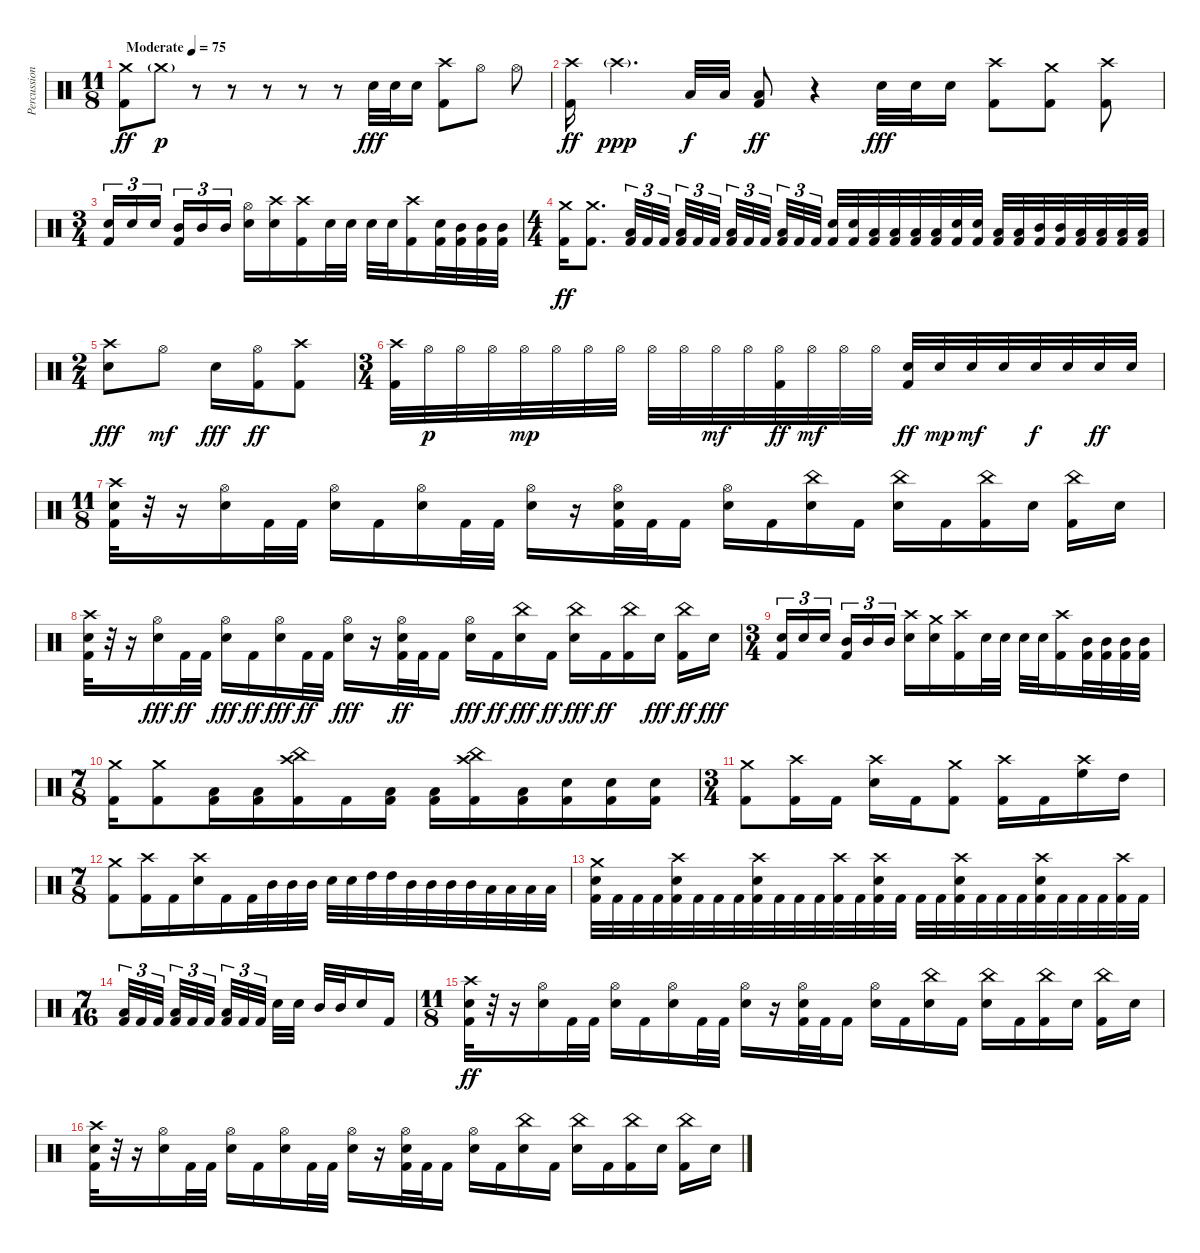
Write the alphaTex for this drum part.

\track ("Percussion" "Percussion") {instrument percussion}
\staff {score}
\articulation defaults
\ts (11 8)
\tempo (75 "Moderate")
\clef neutral
\ks c
("Crash medium (hit)" "Kick (hit) 2").8{dy ff} "Crash medium (hit)"{g}.8{dy p} r.8 r.8 r.8 r.8 r.8 "Electric Snare (hit)".32{dy fff} "Electric Snare (hit)".32 "Electric Snare (hit)".16 ("Crash high (hit)" "Kick (hit) 2").8 "Hi-Hat (open)".8 "Hi-Hat (open)".8 |
("Crash high (hit)" "Kick (hit) 2").16{dy ff} "Crash high (hit)"{g}.4{d dy ppp volume 0} "Low Tom (hit)".32{dy f volume 11} "Low Tom (hit)".32 ("Low Tom (hit)" "Kick (hit) 2").8{dy ff} r.4 "Electric Snare (hit)".32{dy fff} "Electric Snare (hit)".32 "Electric Snare (hit)".16 ("Crash high (hit)" "Kick (hit) 2").8 ("Crash medium (hit)" "Kick (hit) 2").8 ("Crash high (hit)" "Kick (hit) 2").8 |
\ts (3 4)
("Electric Snare (hit)" "Kick (hit) 2").16{tu (3 2)} "Electric Snare (hit)".16{tu (3 2)} "Electric Snare (hit)".16{tu (3 2) beam splitsecondary} ("Mid Tom (hit)" "Kick (hit) 2").16{tu (3 2)} "Mid Tom (hit)".16{tu (3 2)} "Mid Tom (hit)".16{tu (3 2)} ("Hi-Hat (open)" "Electric Snare (hit)").16 ("Crash high (hit)" "Electric Snare (hit)").16 ("Crash high (hit)" "Kick (hit) 2").16 "Electric Snare (hit)".32 "Electric Snare (hit)".32 "Electric Snare (hit)".32 "Electric Snare (hit)".32 ("Crash high (hit)" "Kick (hit) 2").16 ("Electric Snare (hit)" "Kick (hit) 2").32 ("Mid Tom (hit)" "Kick (hit) 2").32 ("Mid Tom (hit)" "Kick (hit) 2").32 ("Mid Tom (hit)" "Kick (hit) 2").32 |
\ts (4 4)
("Crash medium (hit)" "Kick (hit) 2").16{dy ff} ("Crash medium (hit)" "Kick (hit) 2").8{d} ("Low Tom (hit)" "Kick (hit) 2").32{tu (3 2)} "Kick (hit) 2".32{tu (3 2)} "Kick (hit) 2".32{tu (3 2) beam splitsecondary} ("Low Tom (hit)" "Kick (hit) 2").32{tu (3 2)} "Kick (hit) 2".32{tu (3 2)} "Kick (hit) 2".32{tu (3 2) beam splitsecondary} ("Low Tom (hit)" "Kick (hit) 2").32{tu (3 2)} "Kick (hit) 2".32{tu (3 2)} "Kick (hit) 2".32{tu (3 2) beam splitsecondary} ("Low Tom (hit)" "Kick (hit) 2").32{tu (3 2)} "Kick (hit) 2".32{tu (3 2)} "Kick (hit) 2".32{tu (3 2)} ("Electric Snare (hit)" "Kick (hit) 2").32 ("Electric Snare (hit)" "Kick (hit) 2").32 ("Low Tom (hit)" "Kick (hit) 2").32 ("Low Tom (hit)" "Kick (hit) 2").32 ("Low Tom (hit)" "Kick (hit) 2").32 ("Low Tom (hit)" "Kick (hit) 2").32 ("Electric Snare (hit)" "Kick (hit) 2").32 ("Electric Snare (hit)" "Kick (hit) 2").32 ("Low Tom (hit)" "Kick (hit) 2").32 ("Low Tom (hit)" "Kick (hit) 2").32 ("Mid Tom (hit)" "Kick (hit) 2").32 ("Mid Tom (hit)" "Kick (hit) 2").32 ("Low Tom (hit)" "Kick (hit) 2").32 ("Low Tom (hit)" "Kick (hit) 2").32 ("Low Tom (hit)" "Kick (hit) 2").32 ("Low Tom (hit)" "Kick (hit) 2").32 |
\ts (2 4)
("Crash high (hit)" "Snare (hit) 2").8{dy fff} "Hi-Hat (open)".8{dy mf} "Electric Snare (hit)".16{dy fff} ("Hi-Hat (open)" "Kick (hit) 2").16{dy ff} ("Crash high (hit)" "Kick (hit) 2").8 |
\ts (3 4)
("Crash high (hit)" "Kick (hit) 2").32 "Hi-Hat (open)".32{dy p} "Hi-Hat (open)".32 "Hi-Hat (open)".32 "Hi-Hat (open)".32{dy mp} "Hi-Hat (open)".32 "Hi-Hat (open)".32 "Hi-Hat (open)".32 "Hi-Hat (open)".32 "Hi-Hat (open)".32 "Hi-Hat (open)".32{dy mf} "Hi-Hat (open)".32 ("Hi-Hat (open)" "Kick (hit) 2").32{dy ff} "Hi-Hat (open)".32{dy mf} "Hi-Hat (open)".32 "Hi-Hat (open)".32 ("Electric Snare (hit)" "Kick (hit) 2").32{dy ff} "Electric Snare (hit)".32{dy mp} "Electric Snare (hit)".32{dy mf} "Electric Snare (hit)".32 "Electric Snare (hit)".32{dy f} "Electric Snare (hit)".32 "Electric Snare (hit)".32{dy ff} "Electric Snare (hit)".32 |
\ts (11 8)
("Crash high (hit)" "Electric Snare (hit)" "Kick (hit) 2").32 r.32 r.16 ("Hi-Hat (open)" "Electric Snare (hit)").16 "Kick (hit) 2".32 "Kick (hit) 2".32 ("Hi-Hat (open)" "Electric Snare (hit)").16 "Kick (hit) 2".16 ("Hi-Hat (open)" "Electric Snare (hit)").16 "Kick (hit) 2".32 "Kick (hit) 2".32 ("Hi-Hat (open)" "Electric Snare (hit)").16 r.16 ("Hi-Hat (open)" "Electric Snare (hit)" "Kick (hit) 2").32 "Kick (hit) 2".32 "Kick (hit) 2".16 ("Hi-Hat (open)" "Electric Snare (hit)").16 "Kick (hit) 2".16 ("China (hit)" "Electric Snare (hit)").16 "Kick (hit) 2".16 ("China (hit)" "Electric Snare (hit)").16 "Kick (hit) 2".16 ("China (hit)" "Kick (hit) 2").16 "Electric Snare (hit)".16 ("China (hit)" "Kick (hit) 2").16 "Electric Snare (hit)".16 |
("Crash high (hit)" "Electric Snare (hit)" "Kick (hit) 2").32 r.32 r.16 ("Hi-Hat (open)" "Electric Snare (hit)").16{dy fff} "Kick (hit) 2".32{dy ff} "Kick (hit) 2".32 ("Hi-Hat (open)" "Electric Snare (hit)").16{dy fff} "Kick (hit) 2".16{dy ff} ("Hi-Hat (open)" "Electric Snare (hit)").16{dy fff} "Kick (hit) 2".32{dy ff} "Kick (hit) 2".32 ("Hi-Hat (open)" "Electric Snare (hit)").16{dy fff} r.16 ("Hi-Hat (open)" "Electric Snare (hit)" "Kick (hit) 2").32{dy ff} "Kick (hit) 2".32 "Kick (hit) 2".16 ("Hi-Hat (open)" "Electric Snare (hit)").16{dy fff} "Kick (hit) 2".16{dy ff} ("China (hit)" "Electric Snare (hit)").16{dy fff} "Kick (hit) 2".16{dy ff} ("China (hit)" "Electric Snare (hit)").16{dy fff} "Kick (hit) 2".16{dy ff} ("China (hit)" "Kick (hit) 2").16 "Electric Snare (hit)".16{dy fff} ("China (hit)" "Kick (hit) 2").16{dy ff} "Electric Snare (hit)".16{dy fff} |
\ts (3 4)
("Electric Snare (hit)" "Kick (hit) 2").16{tu (3 2)} "Electric Snare (hit)".16{tu (3 2)} "Electric Snare (hit)".16{tu (3 2) beam splitsecondary} ("Mid Tom (hit)" "Kick (hit) 2").16{tu (3 2)} "Mid Tom (hit)".16{tu (3 2)} "Mid Tom (hit)".16{tu (3 2)} ("Crash high (hit)" "Electric Snare (hit)").16 ("Crash medium (hit)" "Electric Snare (hit)").16 ("Crash high (hit)" "Kick (hit) 2").16 "Electric Snare (hit)".32 "Electric Snare (hit)".32 "Electric Snare (hit)".32 "Electric Snare (hit)".32 ("Crash high (hit)" "Kick (hit) 2").16 ("Mid Tom (hit)" "Kick (hit) 2").32 ("Mid Tom (hit)" "Kick (hit) 2").32 ("Mid Tom (hit)" "Kick (hit) 2").32 ("Mid Tom (hit)" "Kick (hit) 2").32 |
\ts (7 8)
("Crash medium (hit)" "Kick (hit) 2").16 ("Crash medium (hit)" "Kick (hit) 2").8 ("Low Tom (hit)" "Kick (hit) 2").16 ("Low Tom (hit)" "Kick (hit) 2").16 ("China (hit)" "Crash high (hit)" "Kick (hit) 2").16 "Kick (hit) 2".16 ("Low Tom (hit)" "Kick (hit) 2").16 ("Low Tom (hit)" "Kick (hit) 2").16 ("China (hit)" "Crash high (hit)" "Kick (hit) 2").16 ("Low Tom (hit)" "Kick (hit) 2").16 ("Electric Snare (hit)" "Kick (hit) 2").16 ("Electric Snare (hit)" "Kick (hit) 2").16 ("Electric Snare (hit)" "Kick (hit) 2").16 |
\ts (3 4)
("Crash medium (hit)" "Kick (hit) 2").8 ("Crash high (hit)" "Kick (hit) 2").16 "Kick (hit) 2".16 ("Crash high (hit)" "Electric Snare (hit)").16 "Kick (hit) 2".16 ("Crash medium (hit)" "Kick (hit) 2").8 ("Crash high (hit)" "Kick (hit) 2").16 "Kick (hit) 2".16 ("Crash high (hit)" "High Floor Tom (hit)").16 "High Tom (hit)".16 |
\ts (7 8)
("Crash medium (hit)" "Kick (hit) 2").8 ("Crash high (hit)" "Kick (hit) 2").16 "Kick (hit) 2".16 ("Crash high (hit)" "Electric Snare (hit)").16 "Kick (hit) 2".16 "Kick (hit) 2".32 "Mid Tom (hit)".32 "Mid Tom (hit)".32 "Mid Tom (hit)".32 "Electric Snare (hit)".32 "Electric Snare (hit)".32 "High Tom (hit)".32 "High Tom (hit)".32 "Mid Tom (hit)".32 "Mid Tom (hit)".32 "Mid Tom (hit)".32 "Mid Tom (hit)".32 "Low Tom (hit)".32 "Low Tom (hit)".32 "Low Tom (hit)".32 "Low Tom (hit)".32 |
("Crash medium (hit)" "Electric Snare (hit)" "Kick (hit) 2").32 "Kick (hit) 2".32 "Kick (hit) 2".32 "Kick (hit) 2".32 ("Crash high (hit)" "Electric Snare (hit)" "Kick (hit) 2").32 "Kick (hit) 2".32 "Kick (hit) 2".32 "Kick (hit) 2".32 ("Crash high (hit)" "Electric Snare (hit)" "Kick (hit) 2").32 "Kick (hit) 2".32 "Kick (hit) 2".32 "Kick (hit) 2".32 ("Crash high (hit)" "Kick (hit) 2").32 "Kick (hit) 2".32 ("Crash high (hit)" "Electric Snare (hit)" "Kick (hit) 2").32 "Kick (hit) 2".32 "Kick (hit) 2".32 "Kick (hit) 2".32 ("Crash high (hit)" "Electric Snare (hit)" "Kick (hit) 2").32 "Kick (hit) 2".32 "Kick (hit) 2".32 "Kick (hit) 2".32 ("Crash high (hit)" "Electric Snare (hit)" "Kick (hit) 2").32 "Kick (hit) 2".32 "Kick (hit) 2".32 "Kick (hit) 2".32 ("Crash high (hit)" "Kick (hit) 2").32 "Kick (hit) 2".32 |
\ts (7 16)
("Low Tom (hit)" "Kick (hit) 2").32{tu (3 2)} "Kick (hit) 2".32{tu (3 2)} "Kick (hit) 2".32{tu (3 2)} ("Low Tom (hit)" "Kick (hit) 2").32{tu (3 2)} "Kick (hit) 2".32{tu (3 2)} "Kick (hit) 2".32{tu (3 2)} ("Low Tom (hit)" "Kick (hit) 2").32{tu (3 2)} "Kick (hit) 2".32{tu (3 2)} "Kick (hit) 2".32{tu (3 2)} "Electric Snare (hit)".32 "Electric Snare (hit)".32 "Mid Tom (hit)".32 "Mid Tom (hit)".32 "Electric Snare (hit)".16 "Kick (hit) 2".16 |
\ts (11 8)
("Crash high (hit)" "Electric Snare (hit)" "Kick (hit) 2").32{dy ff} r.32 r.16 ("Hi-Hat (open)" "Electric Snare (hit)").16 "Kick (hit) 2".32 "Kick (hit) 2".32 ("Hi-Hat (open)" "Electric Snare (hit)").16 "Kick (hit) 2".16 ("Hi-Hat (open)" "Electric Snare (hit)").16 "Kick (hit) 2".32 "Kick (hit) 2".32 ("Hi-Hat (open)" "Electric Snare (hit)").16 r.16 ("Hi-Hat (open)" "Electric Snare (hit)" "Kick (hit) 2").32 "Kick (hit) 2".32 "Kick (hit) 2".16 ("Hi-Hat (open)" "Electric Snare (hit)").16 "Kick (hit) 2".16 ("China (hit)" "Electric Snare (hit)").16 "Kick (hit) 2".16 ("China (hit)" "Electric Snare (hit)").16 "Kick (hit) 2".16 ("China (hit)" "Kick (hit) 2").16 "Electric Snare (hit)".16 ("China (hit)" "Kick (hit) 2").16 "Electric Snare (hit)".16 |
("Crash high (hit)" "Electric Snare (hit)" "Kick (hit) 2").32 r.32 r.16 ("Hi-Hat (open)" "Electric Snare (hit)").16 "Kick (hit) 2".32 "Kick (hit) 2".32 ("Hi-Hat (open)" "Electric Snare (hit)").16 "Kick (hit) 2".16 ("Hi-Hat (open)" "Electric Snare (hit)").16 "Kick (hit) 2".32 "Kick (hit) 2".32 ("Hi-Hat (open)" "Electric Snare (hit)").16 r.16 ("Hi-Hat (open)" "Electric Snare (hit)" "Kick (hit) 2").32 "Kick (hit) 2".32 "Kick (hit) 2".16 ("Hi-Hat (open)" "Electric Snare (hit)").16 "Kick (hit) 2".16 ("China (hit)" "Electric Snare (hit)").16 "Kick (hit) 2".16 ("China (hit)" "Electric Snare (hit)").16 "Kick (hit) 2".16 ("China (hit)" "Kick (hit) 2").16 "Electric Snare (hit)".16 ("China (hit)" "Kick (hit) 2").16 "Electric Snare (hit)".16
